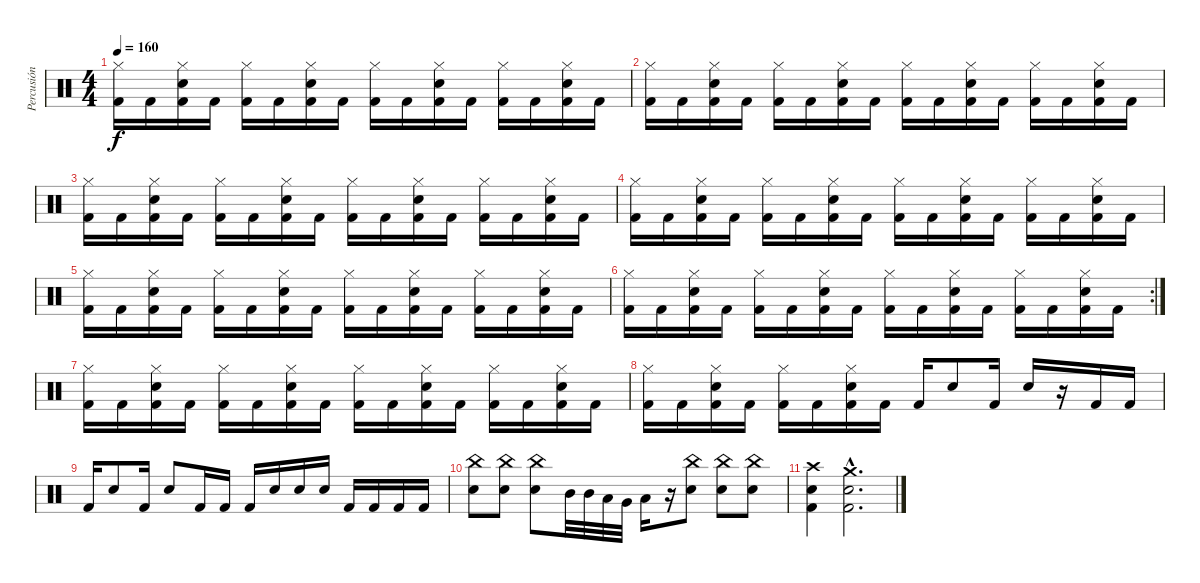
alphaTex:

\track ("Percusión" "Percusión") {instrument percussion}
\staff {score}
\articulation defaults
\ts (4 4)
\tempo 160
\clef neutral
\ks c
("Kick (hit) 2" "Hi-Hat (closed)").16{dy f} "Kick (hit) 2".16 ("Kick (hit) 2" "Snare (hit) 2" "Hi-Hat (closed)").16 "Kick (hit) 2".16 ("Kick (hit) 2" "Hi-Hat (closed)").16 "Kick (hit) 2".16 ("Kick (hit) 2" "Snare (hit) 2" "Hi-Hat (closed)").16 "Kick (hit) 2".16 ("Kick (hit) 2" "Hi-Hat (closed)").16 "Kick (hit) 2".16 ("Kick (hit) 2" "Snare (hit) 2" "Hi-Hat (closed)").16 "Kick (hit) 2".16 ("Kick (hit) 2" "Hi-Hat (closed)").16 "Kick (hit) 2".16 ("Kick (hit) 2" "Snare (hit) 2" "Hi-Hat (closed)").16 "Kick (hit) 2".16 |
("Kick (hit) 2" "Hi-Hat (closed)").16 "Kick (hit) 2".16 ("Kick (hit) 2" "Snare (hit) 2" "Hi-Hat (closed)").16 "Kick (hit) 2".16 ("Kick (hit) 2" "Hi-Hat (closed)").16 "Kick (hit) 2".16 ("Kick (hit) 2" "Snare (hit) 2" "Hi-Hat (closed)").16 "Kick (hit) 2".16 ("Kick (hit) 2" "Hi-Hat (closed)").16 "Kick (hit) 2".16 ("Kick (hit) 2" "Snare (hit) 2" "Hi-Hat (closed)").16 "Kick (hit) 2".16 ("Kick (hit) 2" "Hi-Hat (closed)").16 "Kick (hit) 2".16 ("Kick (hit) 2" "Snare (hit) 2" "Hi-Hat (closed)").16 "Kick (hit) 2".16 |
("Kick (hit) 2" "Hi-Hat (closed)").16 "Kick (hit) 2".16 ("Kick (hit) 2" "Snare (hit) 2" "Hi-Hat (closed)").16 "Kick (hit) 2".16 ("Kick (hit) 2" "Hi-Hat (closed)").16 "Kick (hit) 2".16 ("Kick (hit) 2" "Snare (hit) 2" "Hi-Hat (closed)").16 "Kick (hit) 2".16 ("Kick (hit) 2" "Hi-Hat (closed)").16 "Kick (hit) 2".16 ("Kick (hit) 2" "Snare (hit) 2" "Hi-Hat (closed)").16 "Kick (hit) 2".16 ("Kick (hit) 2" "Hi-Hat (closed)").16 "Kick (hit) 2".16 ("Kick (hit) 2" "Snare (hit) 2" "Hi-Hat (closed)").16 "Kick (hit) 2".16 |
("Kick (hit) 2" "Hi-Hat (closed)").16 "Kick (hit) 2".16 ("Kick (hit) 2" "Snare (hit) 2" "Hi-Hat (closed)").16 "Kick (hit) 2".16 ("Kick (hit) 2" "Hi-Hat (closed)").16 "Kick (hit) 2".16 ("Kick (hit) 2" "Snare (hit) 2" "Hi-Hat (closed)").16 "Kick (hit) 2".16 ("Kick (hit) 2" "Hi-Hat (closed)").16 "Kick (hit) 2".16 ("Kick (hit) 2" "Snare (hit) 2" "Hi-Hat (closed)").16 "Kick (hit) 2".16 ("Kick (hit) 2" "Hi-Hat (closed)").16 "Kick (hit) 2".16 ("Kick (hit) 2" "Snare (hit) 2" "Hi-Hat (closed)").16 "Kick (hit) 2".16 |
("Kick (hit) 2" "Hi-Hat (closed)").16 "Kick (hit) 2".16 ("Kick (hit) 2" "Snare (hit) 2" "Hi-Hat (closed)").16 "Kick (hit) 2".16 ("Kick (hit) 2" "Hi-Hat (closed)").16 "Kick (hit) 2".16 ("Kick (hit) 2" "Snare (hit) 2" "Hi-Hat (closed)").16 "Kick (hit) 2".16 ("Kick (hit) 2" "Hi-Hat (closed)").16 "Kick (hit) 2".16 ("Kick (hit) 2" "Snare (hit) 2" "Hi-Hat (closed)").16 "Kick (hit) 2".16 ("Kick (hit) 2" "Hi-Hat (closed)").16 "Kick (hit) 2".16 ("Kick (hit) 2" "Snare (hit) 2" "Hi-Hat (closed)").16 "Kick (hit) 2".16 |
\rc 2
("Kick (hit) 2" "Hi-Hat (closed)").16 "Kick (hit) 2".16 ("Kick (hit) 2" "Snare (hit) 2" "Hi-Hat (closed)").16 "Kick (hit) 2".16 ("Kick (hit) 2" "Hi-Hat (closed)").16 "Kick (hit) 2".16 ("Kick (hit) 2" "Snare (hit) 2" "Hi-Hat (closed)").16 "Kick (hit) 2".16 ("Kick (hit) 2" "Hi-Hat (closed)").16 "Kick (hit) 2".16 ("Kick (hit) 2" "Snare (hit) 2" "Hi-Hat (closed)").16 "Kick (hit) 2".16 ("Kick (hit) 2" "Hi-Hat (closed)").16 "Kick (hit) 2".16 ("Kick (hit) 2" "Snare (hit) 2" "Hi-Hat (closed)").16 "Kick (hit) 2".16 |
("Kick (hit) 2" "Hi-Hat (closed)").16 "Kick (hit) 2".16 ("Kick (hit) 2" "Snare (hit) 2" "Hi-Hat (closed)").16 "Kick (hit) 2".16 ("Kick (hit) 2" "Hi-Hat (closed)").16 "Kick (hit) 2".16 ("Kick (hit) 2" "Snare (hit) 2" "Hi-Hat (closed)").16 "Kick (hit) 2".16 ("Kick (hit) 2" "Hi-Hat (closed)").16 "Kick (hit) 2".16 ("Kick (hit) 2" "Snare (hit) 2" "Hi-Hat (closed)").16 "Kick (hit) 2".16 ("Kick (hit) 2" "Hi-Hat (closed)").16 "Kick (hit) 2".16 ("Kick (hit) 2" "Snare (hit) 2" "Hi-Hat (closed)").16 "Kick (hit) 2".16 |
("Kick (hit) 2" "Hi-Hat (closed)").16 "Kick (hit) 2".16 ("Kick (hit) 2" "Snare (hit) 2" "Hi-Hat (closed)").16 "Kick (hit) 2".16 ("Kick (hit) 2" "Hi-Hat (closed)").16 "Kick (hit) 2".16 ("Kick (hit) 2" "Snare (hit) 2" "Hi-Hat (closed)").16 "Kick (hit) 2".16 "Kick (hit) 2".16 "Snare (hit) 2".8 "Kick (hit) 2".16 "Snare (hit) 2".16 r.16 "Kick (hit) 2".16 "Kick (hit) 2".16 |
"Kick (hit) 2".16 "Snare (hit) 2".8 "Kick (hit) 2".16 "Snare (hit) 2".8 "Kick (hit) 2".16 "Kick (hit) 2".16 "Kick (hit) 2".16 "Snare (hit) 2".16 "Snare (hit) 2".16 "Snare (hit) 2".16 "Kick (hit) 2".16 "Kick (hit) 2".16 "Kick (hit) 2".16 "Kick (hit) 2".16 |
("China (hit)" "Snare (hit) 2").8 ("China (hit)" "Snare (hit) 2").8 ("China (hit)" "Snare (hit) 2").8 "Mid Tom (hit)".32 "Mid Tom (hit)".32 "Low Tom (hit)".32 "Very Low Tom (hit)".32 "Low Tom (hit)".16 r.16 ("China (hit)" "Snare (hit) 2").8 ("China (hit)" "Snare (hit) 2").8 ("China (hit)" "Snare (hit) 2").8 |
("Kick (hit) 2" "Snare (hit) 2" "Crash high (hit)").4 ("Kick (hit) 2"{hac} "Snare (hit) 2"{hac} "Crash medium (hit)"{hac}).2{d}
